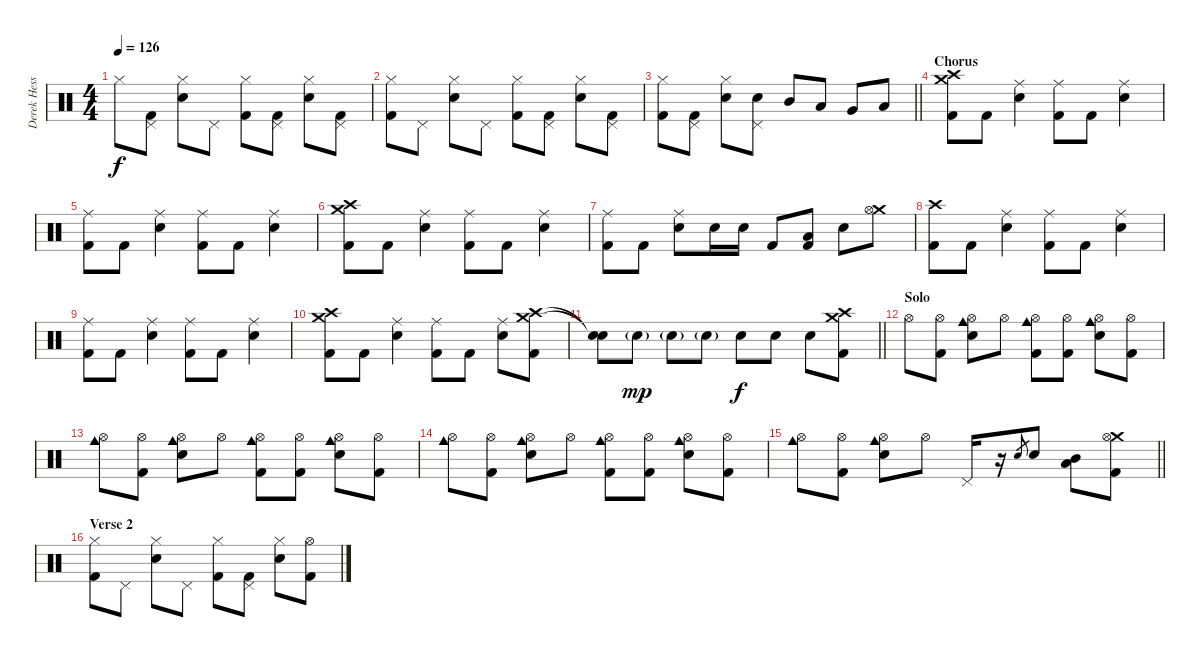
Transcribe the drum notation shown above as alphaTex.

\track ("Derek Hess - Drums and Percussion" "Derek Hess") {instrument percussion}
\staff {score}
\articulation defaults
\ts (4 4)
\tempo 126
\clef neutral
\ks c "Hi-Hat (closed)".8{dy f}
("Pedal Hi-Hat (hit)" "Kick (hit) 2").8 ("Snare (hit) 2" "Hi-Hat (closed)").8 "Pedal Hi-Hat (hit)".8 ("Hi-Hat (closed)" "Kick (hit) 2").8 ("Pedal Hi-Hat (hit)" "Kick (hit) 2").8 ("Snare (hit) 2" "Hi-Hat (closed)").8 ("Pedal Hi-Hat (hit)" "Kick (hit) 2").8 |
("Hi-Hat (closed)" "Kick (hit) 2").8 "Pedal Hi-Hat (hit)".8 ("Snare (hit) 2" "Hi-Hat (closed)").8 "Pedal Hi-Hat (hit)".8 ("Hi-Hat (closed)" "Kick (hit) 2").8 ("Pedal Hi-Hat (hit)" "Kick (hit) 2").8 ("Snare (hit) 2" "Hi-Hat (closed)").8 ("Pedal Hi-Hat (hit)" "Kick (hit) 2").8 |
\barLineRight lightlight
("Hi-Hat (closed)" "Kick (hit) 2").8 ("Pedal Hi-Hat (hit)" "Kick (hit) 2").8 ("Snare (hit) 2" "Hi-Hat (closed)").8 ("Snare (hit) 2" "Pedal Hi-Hat (hit)").8 "Mid Tom (hit)".8 "Low Tom (hit)".8 "Very Low Tom (hit)".8 "Low Floor Tom (hit)".8 |
\section ("" "Chorus")
("Crash high (hit)" "Crash medium (hit)" "Kick (hit) 2").8 "Kick (hit) 2".8 ("Ride (middle)" "Snare (hit) 2").4 ("Ride (middle)" "Kick (hit) 2").8 "Kick (hit) 2".8 ("Ride (middle)" "Snare (hit) 2").4 |
("Ride (middle)" "Kick (hit) 2").8 "Kick (hit) 2".8 ("Ride (middle)" "Snare (hit) 2").4 ("Ride (middle)" "Kick (hit) 2").8 "Kick (hit) 2".8 ("Ride (middle)" "Snare (hit) 2").4 |
("Crash high (hit)" "Crash medium (hit)" "Kick (hit) 2").8 "Kick (hit) 2".8 ("Ride (middle)" "Snare (hit) 2").4 ("Ride (middle)" "Kick (hit) 2").8 "Kick (hit) 2".8 ("Ride (middle)" "Snare (hit) 2").4 |
("Ride (middle)" "Kick (hit) 2").8 "Kick (hit) 2".8 ("Ride (middle)" "Snare (hit) 2").8 "Snare (hit) 2".16 "Snare (hit) 2".16 "Kick (hit) 2".8 ("Low Tom (hit)" "Kick (hit) 2").8 "Snare (hit) 2".8 ("Crash medium (hit)" "Hi-Hat (open)").8 |
("Crash high (hit)" "Kick (hit) 2").8 "Kick (hit) 2".8 ("Ride (middle)" "Snare (hit) 2").4 ("Ride (middle)" "Kick (hit) 2").8 "Kick (hit) 2".8 ("Ride (middle)" "Snare (hit) 2").4 |
("Ride (middle)" "Kick (hit) 2").8 "Kick (hit) 2".8 ("Ride (middle)" "Snare (hit) 2").4 ("Ride (middle)" "Kick (hit) 2").8 "Kick (hit) 2".8 ("Ride (middle)" "Snare (hit) 2").4 |
("Crash high (hit)" "Crash medium (hit)" "Kick (hit) 2").8 "Kick (hit) 2".8 ("Ride (middle)" "Snare (hit) 2").4 ("Ride (middle)" "Kick (hit) 2").8 "Kick (hit) 2".8 ("Ride (middle)" "Snare (hit) 2").8 ("Crash medium (hit)" "Crash high (hit)" "Kick (hit) 2").8 |
\barLineRight lightlight
("Snare (hit)"{t} "Snare (hit)"{t}).8 "Snare (hit) 2"{g}.8{dy mp} "Snare (hit) 2"{g}.8 "Snare (hit) 2"{g}.8 "Snare (hit) 2".8{dy f} "Snare (hit) 2".8 "Snare (hit) 2".8 ("Crash medium (hit)" "Crash high (hit)" "Kick (hit) 2").8 |
\section ("" "Solo")
"Hi-Hat (open)".8 ("Hi-Hat (open)" "Kick (hit) 2").8 ("Snare (hit) 2" "Hi-Hat (open)" "Cowbell medium (hit)").8 "Hi-Hat (open)".8 ("Hi-Hat (open)" "Cowbell medium (hit)" "Kick (hit) 2").8 ("Hi-Hat (open)" "Kick (hit) 2").8 ("Snare (hit) 2" "Hi-Hat (open)" "Cowbell medium (hit)").8 ("Hi-Hat (open)" "Kick (hit) 2").8 |
("Hi-Hat (open)" "Cowbell medium (hit)").8 ("Hi-Hat (open)" "Kick (hit) 2").8 ("Snare (hit) 2" "Hi-Hat (open)" "Cowbell medium (hit)").8 "Hi-Hat (open)".8 ("Hi-Hat (open)" "Cowbell medium (hit)" "Kick (hit) 2").8 ("Hi-Hat (open)" "Kick (hit) 2").8 ("Snare (hit) 2" "Hi-Hat (open)" "Cowbell medium (hit)").8 ("Hi-Hat (open)" "Kick (hit) 2").8 |
("Hi-Hat (open)" "Cowbell medium (hit)").8 ("Hi-Hat (open)" "Kick (hit) 2").8 ("Snare (hit) 2" "Hi-Hat (open)" "Cowbell medium (hit)").8 "Hi-Hat (open)".8 ("Hi-Hat (open)" "Cowbell medium (hit)" "Kick (hit) 2").8 ("Hi-Hat (open)" "Kick (hit) 2").8 ("Snare (hit) 2" "Hi-Hat (open)" "Cowbell medium (hit)").8 ("Hi-Hat (open)" "Kick (hit) 2").8 |
\barLineRight lightlight
("Hi-Hat (open)" "Cowbell medium (hit)").8 ("Hi-Hat (open)" "Kick (hit) 2").8 ("Snare (hit) 2" "Hi-Hat (open)" "Cowbell medium (hit)").8 "Hi-Hat (open)".8 "Pedal Hi-Hat (hit)".16 r.16 "Snare (hit) 2".8{gr} "Snare (hit) 2".8 ("Low Tom (hit)" "Mid Tom (hit)").8 ("Crash medium (hit)" "Hi-Hat (open)" "Kick (hit) 2").8 |
\section ("" "Verse 2")
("Hi-Hat (closed)" "Kick (hit) 2").8 "Pedal Hi-Hat (hit)".8 ("Snare (hit) 2" "Hi-Hat (closed)").8 "Pedal Hi-Hat (hit)".8 ("Hi-Hat (closed)" "Kick (hit) 2").8 ("Pedal Hi-Hat (hit)" "Kick (hit) 2").8 ("Snare (hit) 2" "Hi-Hat (closed)").8 ("Hi-Hat (open)" "Kick (hit) 2").8
